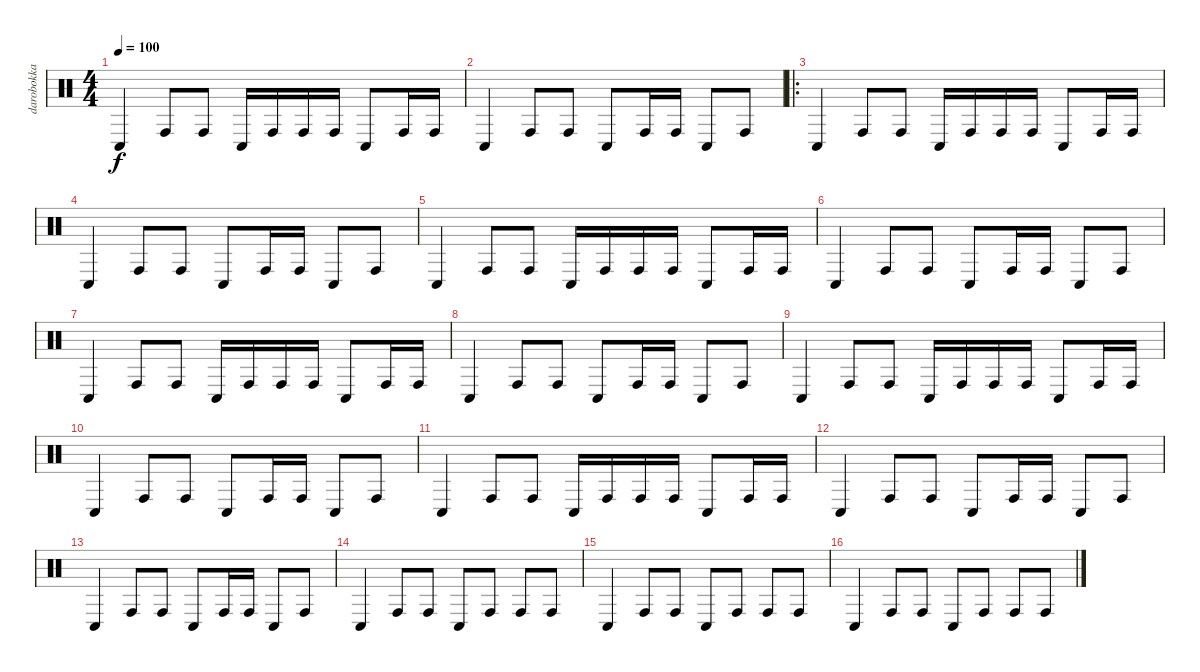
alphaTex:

\track ("darobokka" "darobokka") {instrument percussion}
\staff {score}
\articulation defaults
\ts (4 4)
\tempo 100
\clef neutral
\ks c "Conga low (hit)".4{dy f} "Conga high (hit)".8 "Conga high (hit)".8 "Conga low (hit)".16 "Conga high (hit)".16 "Conga high (hit)".16 "Conga high (hit)".16 "Conga low (hit)".8 "Conga high (hit)".16 "Conga high (hit)".16
|
"Conga low (hit)".4 "Conga high (hit)".8 "Conga high (hit)".8 "Conga low (hit)".8 "Conga high (hit)".16 "Conga high (hit)".16 "Conga low (hit)".8 "Conga high (hit)".8 |
\ro "Conga low (hit)".4 "Conga high (hit)".8 "Conga high (hit)".8 "Conga low (hit)".16 "Conga high (hit)".16 "Conga high (hit)".16 "Conga high (hit)".16 "Conga low (hit)".8 "Conga high (hit)".16 "Conga high (hit)".16
|
"Conga low (hit)".4 "Conga high (hit)".8 "Conga high (hit)".8 "Conga low (hit)".8 "Conga high (hit)".16 "Conga high (hit)".16 "Conga low (hit)".8 "Conga high (hit)".8 |
"Conga low (hit)".4 "Conga high (hit)".8 "Conga high (hit)".8 "Conga low (hit)".16 "Conga high (hit)".16 "Conga high (hit)".16 "Conga high (hit)".16 "Conga low (hit)".8 "Conga high (hit)".16 "Conga high (hit)".16 |
"Conga low (hit)".4 "Conga high (hit)".8 "Conga high (hit)".8 "Conga low (hit)".8 "Conga high (hit)".16 "Conga high (hit)".16 "Conga low (hit)".8 "Conga high (hit)".8 |
"Conga low (hit)".4 "Conga high (hit)".8 "Conga high (hit)".8 "Conga low (hit)".16 "Conga high (hit)".16 "Conga high (hit)".16 "Conga high (hit)".16 "Conga low (hit)".8 "Conga high (hit)".16 "Conga high (hit)".16 |
"Conga low (hit)".4 "Conga high (hit)".8 "Conga high (hit)".8 "Conga low (hit)".8 "Conga high (hit)".16 "Conga high (hit)".16 "Conga low (hit)".8 "Conga high (hit)".8 |
"Conga low (hit)".4 "Conga high (hit)".8 "Conga high (hit)".8 "Conga low (hit)".16 "Conga high (hit)".16 "Conga high (hit)".16 "Conga high (hit)".16 "Conga low (hit)".8 "Conga high (hit)".16 "Conga high (hit)".16 |
"Conga low (hit)".4 "Conga high (hit)".8 "Conga high (hit)".8 "Conga low (hit)".8 "Conga high (hit)".16 "Conga high (hit)".16 "Conga low (hit)".8 "Conga high (hit)".8 |
"Conga low (hit)".4 "Conga high (hit)".8 "Conga high (hit)".8 "Conga low (hit)".16 "Conga high (hit)".16 "Conga high (hit)".16 "Conga high (hit)".16 "Conga low (hit)".8 "Conga high (hit)".16 "Conga high (hit)".16 |
"Conga low (hit)".4 "Conga high (hit)".8 "Conga high (hit)".8 "Conga low (hit)".8 "Conga high (hit)".16 "Conga high (hit)".16 "Conga low (hit)".8 "Conga high (hit)".8 |
"Conga low (hit)".4 "Conga high (hit)".8 "Conga high (hit)".8 "Conga low (hit)".8 "Conga high (hit)".16 "Conga high (hit)".16 "Conga low (hit)".8 "Conga high (hit)".8 |
"Conga low (hit)".4 "Conga high (hit)".8 "Conga high (hit)".8 "Conga low (hit)".8 "Conga high (hit)".8 "Conga high (hit)".8 "Conga high (hit)".8 |
"Conga low (hit)".4 "Conga high (hit)".8 "Conga high (hit)".8 "Conga low (hit)".8 "Conga high (hit)".8 "Conga high (hit)".8 "Conga high (hit)".8 |
"Conga low (hit)".4 "Conga high (hit)".8 "Conga high (hit)".8 "Conga low (hit)".8 "Conga high (hit)".8 "Conga high (hit)".8 "Conga high (hit)".8
